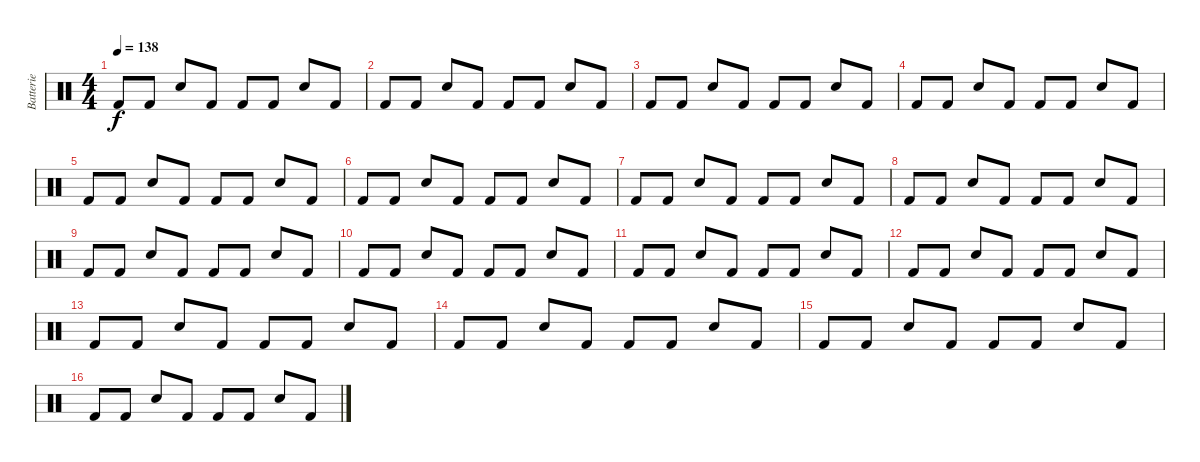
\track ("Batterie" "Batterie") {instrument percussion}
\staff {score}
\articulation defaults
\ts (4 4)
\tempo 138
\clef neutral
\ks c "Kick (hit) 2".8{dy f} "Kick (hit) 2".8 "Snare (hit) 2".8 "Kick (hit) 2".8 "Kick (hit) 2".8 "Kick (hit) 2".8 "Snare (hit) 2".8 "Kick (hit) 2".8
|
"Kick (hit) 2".8 "Kick (hit) 2".8 "Snare (hit) 2".8 "Kick (hit) 2".8 "Kick (hit) 2".8 "Kick (hit) 2".8 "Snare (hit) 2".8 "Kick (hit) 2".8 |
"Kick (hit) 2".8 "Kick (hit) 2".8 "Snare (hit) 2".8 "Kick (hit) 2".8 "Kick (hit) 2".8 "Kick (hit) 2".8 "Snare (hit) 2".8 "Kick (hit) 2".8 |
"Kick (hit) 2".8 "Kick (hit) 2".8 "Snare (hit) 2".8 "Kick (hit) 2".8 "Kick (hit) 2".8 "Kick (hit) 2".8 "Snare (hit) 2".8 "Kick (hit) 2".8 |
"Kick (hit) 2".8 "Kick (hit) 2".8 "Snare (hit) 2".8 "Kick (hit) 2".8 "Kick (hit) 2".8 "Kick (hit) 2".8 "Snare (hit) 2".8 "Kick (hit) 2".8 |
"Kick (hit) 2".8 "Kick (hit) 2".8 "Snare (hit) 2".8 "Kick (hit) 2".8 "Kick (hit) 2".8 "Kick (hit) 2".8 "Snare (hit) 2".8 "Kick (hit) 2".8 |
"Kick (hit) 2".8 "Kick (hit) 2".8 "Snare (hit) 2".8 "Kick (hit) 2".8 "Kick (hit) 2".8 "Kick (hit) 2".8 "Snare (hit) 2".8 "Kick (hit) 2".8 |
"Kick (hit) 2".8 "Kick (hit) 2".8 "Snare (hit) 2".8 "Kick (hit) 2".8 "Kick (hit) 2".8 "Kick (hit) 2".8 "Snare (hit) 2".8 "Kick (hit) 2".8 |
"Kick (hit) 2".8 "Kick (hit) 2".8 "Snare (hit) 2".8 "Kick (hit) 2".8 "Kick (hit) 2".8 "Kick (hit) 2".8 "Snare (hit) 2".8 "Kick (hit) 2".8 |
"Kick (hit) 2".8 "Kick (hit) 2".8 "Snare (hit) 2".8 "Kick (hit) 2".8 "Kick (hit) 2".8 "Kick (hit) 2".8 "Snare (hit) 2".8 "Kick (hit) 2".8 |
"Kick (hit) 2".8 "Kick (hit) 2".8 "Snare (hit) 2".8 "Kick (hit) 2".8 "Kick (hit) 2".8 "Kick (hit) 2".8 "Snare (hit) 2".8 "Kick (hit) 2".8 |
"Kick (hit) 2".8 "Kick (hit) 2".8 "Snare (hit) 2".8 "Kick (hit) 2".8 "Kick (hit) 2".8 "Kick (hit) 2".8 "Snare (hit) 2".8 "Kick (hit) 2".8 |
"Kick (hit) 2".8 "Kick (hit) 2".8 "Snare (hit) 2".8 "Kick (hit) 2".8 "Kick (hit) 2".8 "Kick (hit) 2".8 "Snare (hit) 2".8 "Kick (hit) 2".8 |
"Kick (hit) 2".8 "Kick (hit) 2".8 "Snare (hit) 2".8 "Kick (hit) 2".8 "Kick (hit) 2".8 "Kick (hit) 2".8 "Snare (hit) 2".8 "Kick (hit) 2".8 |
"Kick (hit) 2".8 "Kick (hit) 2".8 "Snare (hit) 2".8 "Kick (hit) 2".8 "Kick (hit) 2".8 "Kick (hit) 2".8 "Snare (hit) 2".8 "Kick (hit) 2".8 |
"Kick (hit) 2".8 "Kick (hit) 2".8 "Snare (hit) 2".8 "Kick (hit) 2".8 "Kick (hit) 2".8 "Kick (hit) 2".8 "Snare (hit) 2".8 "Kick (hit) 2".8
